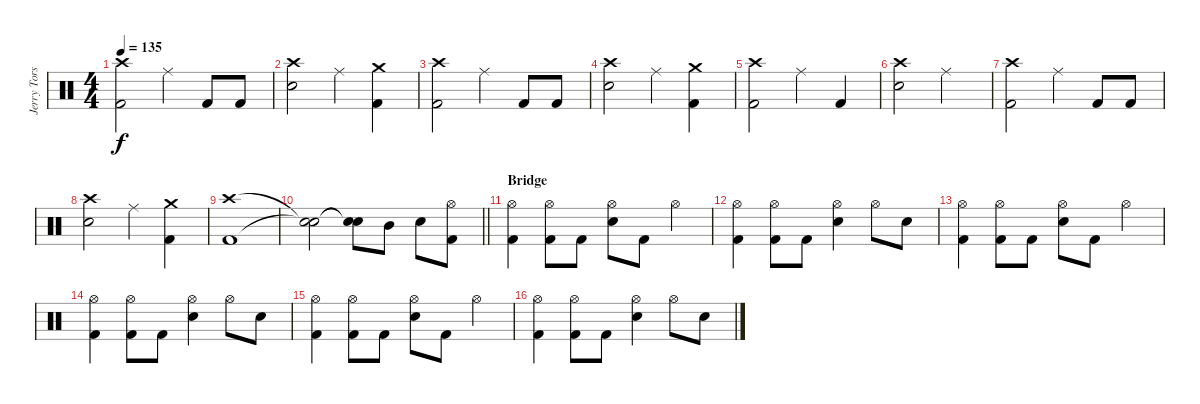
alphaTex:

\track ("Jerry Torstensson" "Jerry Tors") {instrument percussion}
\staff {score}
\articulation defaults
\ts (4 4)
\tempo 135
\clef neutral
\ks c
("Crash high (hit)" "Kick (hit) 2").2{dy f} "Ride (middle)".4 "Kick (hit) 2".8 "Kick (hit) 2".8 |
("Crash high (hit)" "Snare (hit) 2").2 "Ride (middle)".4 ("Crash medium (hit)" "Kick (hit) 2").4 |
("Crash high (hit)" "Kick (hit) 2").2 "Ride (middle)".4 "Kick (hit) 2".8 "Kick (hit) 2".8 |
("Crash high (hit)" "Snare (hit) 2").2 "Ride (middle)".4 ("Crash medium (hit)" "Kick (hit) 2").4 |
("Crash high (hit)" "Kick (hit) 2").2 "Ride (middle)".4 "Kick (hit) 2".4 |
("Crash high (hit)" "Snare (hit) 2").2 "Ride (middle)".2 |
("Crash high (hit)" "Kick (hit) 2").2 "Ride (middle)".4 "Kick (hit) 2".8 "Kick (hit) 2".8 |
("Crash high (hit)" "Snare (hit) 2").2 "Ride (middle)".4 ("Crash medium (hit)" "Kick (hit) 2").4 |
("Crash high (hit)" "Kick (hit) 2").1 |
\barLineRight lightlight
("Snare (hit)"{t} "Snare (hit)"{t}).2 ("Snare (hit)"{t} "Snare (hit)"{t}).8 "Mid Tom (hit)".8 "Snare (hit) 2".8 ("Hi-Hat (open)" "Kick (hit) 2").8 |
\section ("" "Bridge")
("Hi-Hat (open)" "Kick (hit) 2").4 ("Hi-Hat (open)" "Kick (hit) 2").8 "Kick (hit) 2".8 ("Hi-Hat (open)" "Snare (hit) 2").8 "Kick (hit) 2".8 "Hi-Hat (open)".4 |
("Hi-Hat (open)" "Kick (hit) 2").4 ("Hi-Hat (open)" "Kick (hit) 2").8 "Kick (hit) 2".8 ("Hi-Hat (open)" "Snare (hit) 2").4 "Hi-Hat (open)".8 "Snare (hit) 2".8 |
("Hi-Hat (open)" "Kick (hit) 2").4 ("Hi-Hat (open)" "Kick (hit) 2").8 "Kick (hit) 2".8 ("Hi-Hat (open)" "Snare (hit) 2").8 "Kick (hit) 2".8 "Hi-Hat (open)".4 |
("Hi-Hat (open)" "Kick (hit) 2").4 ("Hi-Hat (open)" "Kick (hit) 2").8 "Kick (hit) 2".8 ("Hi-Hat (open)" "Snare (hit) 2").4 "Hi-Hat (open)".8 "Snare (hit) 2".8 |
("Hi-Hat (open)" "Kick (hit) 2").4 ("Hi-Hat (open)" "Kick (hit) 2").8 "Kick (hit) 2".8 ("Hi-Hat (open)" "Snare (hit) 2").8 "Kick (hit) 2".8 "Hi-Hat (open)".4 |
("Hi-Hat (open)" "Kick (hit) 2").4 ("Hi-Hat (open)" "Kick (hit) 2").8 "Kick (hit) 2".8 ("Hi-Hat (open)" "Snare (hit) 2").4 "Hi-Hat (open)".8 "Snare (hit) 2".8
